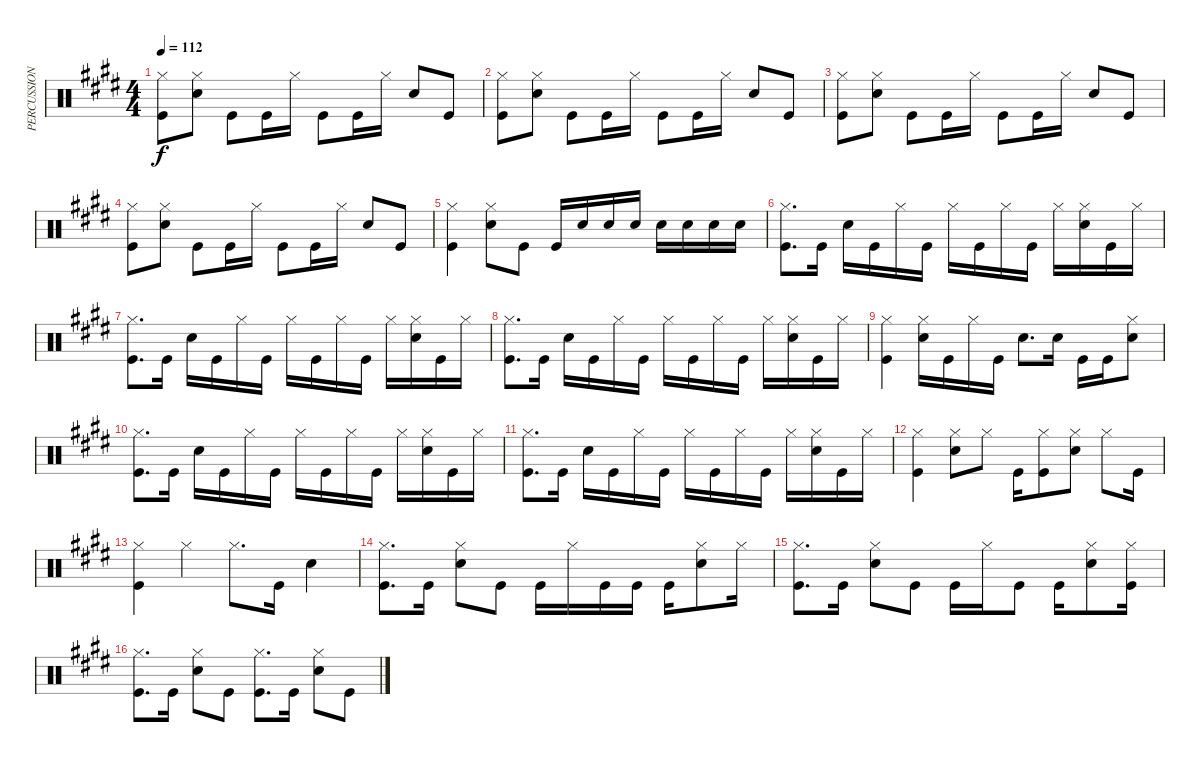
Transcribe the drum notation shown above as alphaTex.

\track ("PERCUSSION" "PERCUSSION") {instrument percussion}
\staff {score}
\articulation defaults
\ts (4 4)
\tempo 112
\clef neutral
\ks c#minor
("Hi-Hat (closed)" "Kick (hit)").8{dy f} ("Hi-Hat (closed)" "Snare (hit) 2").8 "Kick (hit)".8 "Kick (hit)".16 "Hi-Hat (closed)".16 "Kick (hit)".8 "Kick (hit)".16 "Hi-Hat (closed)".16 "Snare (hit) 2".8 "Kick (hit)".8 |
("Hi-Hat (closed)" "Kick (hit)").8 ("Hi-Hat (closed)" "Snare (hit) 2").8 "Kick (hit)".8 "Kick (hit)".16 "Hi-Hat (closed)".16 "Kick (hit)".8 "Kick (hit)".16 "Hi-Hat (closed)".16 "Snare (hit) 2".8 "Kick (hit)".8 |
("Hi-Hat (closed)" "Kick (hit)").8 ("Hi-Hat (closed)" "Snare (hit) 2").8 "Kick (hit)".8 "Kick (hit)".16 "Hi-Hat (closed)".16 "Kick (hit)".8 "Kick (hit)".16 "Hi-Hat (closed)".16 "Snare (hit) 2".8 "Kick (hit)".8 |
("Hi-Hat (closed)" "Kick (hit)").8 ("Hi-Hat (closed)" "Snare (hit) 2").8 "Kick (hit)".8 "Kick (hit)".16 "Hi-Hat (closed)".16 "Kick (hit)".8 "Kick (hit)".16 "Hi-Hat (closed)".16 "Snare (hit) 2".8 "Kick (hit)".8 |
("Hi-Hat (closed)" "Kick (hit)").4 ("Hi-Hat (closed)" "Snare (hit) 2").8 "Kick (hit)".8 "Kick (hit)".16 "Snare (hit) 2".16 "Snare (hit) 2".16 "Snare (hit) 2".16 "Snare (hit) 2".16 "Snare (hit) 2".16 "Snare (hit) 2".16 "Snare (hit) 2".16 |
("Hi-Hat (closed)" "Kick (hit)").8{d} "Kick (hit)".16 "Snare (hit) 2".16 "Kick (hit)".16 "Hi-Hat (closed)".16 "Kick (hit)".16 "Hi-Hat (closed)".16 "Kick (hit)".16 "Hi-Hat (closed)".16 "Kick (hit)".16 "Hi-Hat (closed)".16 ("Hi-Hat (closed)" "Snare (hit) 2").16 "Kick (hit)".16 "Hi-Hat (closed)".16 |
("Hi-Hat (closed)" "Kick (hit)").8{d} "Kick (hit)".16 "Snare (hit) 2".16 "Kick (hit)".16 "Hi-Hat (closed)".16 "Kick (hit)".16 "Hi-Hat (closed)".16 "Kick (hit)".16 "Hi-Hat (closed)".16 "Kick (hit)".16 "Hi-Hat (closed)".16 ("Hi-Hat (closed)" "Snare (hit) 2").16 "Kick (hit)".16 "Hi-Hat (closed)".16 |
("Hi-Hat (closed)" "Kick (hit)").8{d} "Kick (hit)".16 "Snare (hit) 2".16 "Kick (hit)".16 "Hi-Hat (closed)".16 "Kick (hit)".16 "Hi-Hat (closed)".16 "Kick (hit)".16 "Hi-Hat (closed)".16 "Kick (hit)".16 "Hi-Hat (closed)".16 ("Hi-Hat (closed)" "Snare (hit) 2").16 "Kick (hit)".16 "Hi-Hat (closed)".16 |
("Hi-Hat (closed)" "Kick (hit)").4 ("Hi-Hat (closed)" "Snare (hit) 2").16 "Kick (hit)".16 "Hi-Hat (closed)".16 "Kick (hit)".16 "Snare (hit) 2".8{d} "Snare (hit) 2".16 "Kick (hit)".16 "Kick (hit)".16 ("Hi-Hat (closed)" "Snare (hit) 2").8 |
("Hi-Hat (closed)" "Kick (hit)").8{d} "Kick (hit)".16 "Snare (hit) 2".16 "Kick (hit)".16 "Hi-Hat (closed)".16 "Kick (hit)".16 "Hi-Hat (closed)".16 "Kick (hit)".16 "Hi-Hat (closed)".16 "Kick (hit)".16 "Hi-Hat (closed)".16 ("Hi-Hat (closed)" "Snare (hit) 2").16 "Kick (hit)".16 "Hi-Hat (closed)".16 |
("Hi-Hat (closed)" "Kick (hit)").8{d} "Kick (hit)".16 "Snare (hit) 2".16 "Kick (hit)".16 "Hi-Hat (closed)".16 "Kick (hit)".16 "Hi-Hat (closed)".16 "Kick (hit)".16 "Hi-Hat (closed)".16 "Kick (hit)".16 "Hi-Hat (closed)".16 ("Hi-Hat (closed)" "Snare (hit) 2").16 "Kick (hit)".16 "Hi-Hat (closed)".16 |
("Hi-Hat (closed)" "Kick (hit)").4 ("Hi-Hat (closed)" "Snare (hit) 2").8 "Hi-Hat (closed)".8 "Kick (hit)".16 ("Hi-Hat (closed)" "Kick (hit)").8 ("Hi-Hat (closed)" "Snare (hit) 2").8 "Hi-Hat (closed)".8 "Kick (hit)".16 |
("Hi-Hat (closed)" "Kick (hit)").4 "Hi-Hat (closed)".4 "Hi-Hat (closed)".8{d} "Kick (hit)".16 "Snare (hit) 2".4 |
("Hi-Hat (closed)" "Kick (hit)").8{d} "Kick (hit)".16 ("Hi-Hat (closed)" "Snare (hit) 2").8 "Kick (hit)".8 "Kick (hit)".16 "Hi-Hat (closed)".16 "Kick (hit)".16 "Kick (hit)".16 "Kick (hit)".16 ("Hi-Hat (closed)" "Snare (hit) 2").8 "Hi-Hat (closed)".16 |
("Hi-Hat (closed)" "Kick (hit)").8{d} "Kick (hit)".16 ("Hi-Hat (closed)" "Snare (hit) 2").8 "Kick (hit)".8 "Kick (hit)".16 "Hi-Hat (closed)".16 "Kick (hit)".8 "Kick (hit)".16 ("Hi-Hat (closed)" "Snare (hit) 2").8 ("Hi-Hat (closed)" "Kick (hit)").16 |
("Hi-Hat (closed)" "Kick (hit)").8{d} "Kick (hit)".16 ("Hi-Hat (closed)" "Snare (hit) 2").8 "Kick (hit)".8 ("Hi-Hat (closed)" "Kick (hit)").8{d} "Kick (hit)".16 ("Hi-Hat (closed)" "Snare (hit) 2").8 "Kick (hit)".8
